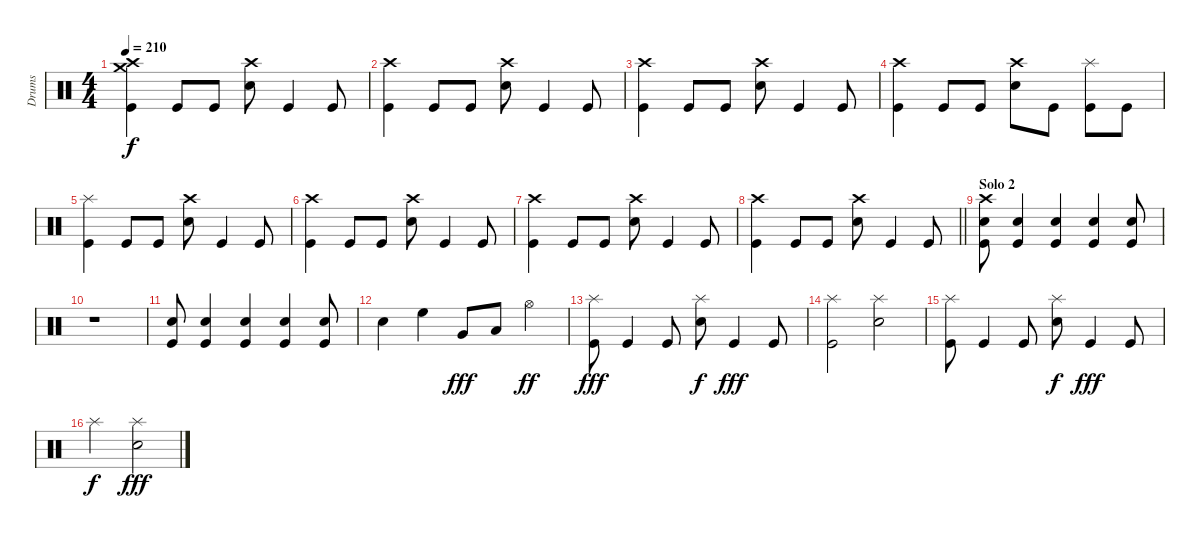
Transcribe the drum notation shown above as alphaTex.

\track ("Drums" "Drums") {instrument percussion}
\staff {score}
\articulation defaults
\ts (4 4)
\tempo 210
\clef neutral
\ks c
("Crash high (hit)" "Crash medium (hit)" "Kick (hit)").4{dy f} "Kick (hit)".8 "Kick (hit)".8 ("Crash high (hit)" "Snare (hit) 2").8 "Kick (hit)".4 "Kick (hit)".8 |
("Crash high (hit)" "Kick (hit)").4 "Kick (hit)".8 "Kick (hit)".8 ("Crash high (hit)" "Snare (hit) 2").8 "Kick (hit)".4 "Kick (hit)".8 |
("Crash high (hit)" "Kick (hit)").4 "Kick (hit)".8 "Kick (hit)".8 ("Crash high (hit)" "Snare (hit) 2").8 "Kick (hit)".4 "Kick (hit)".8 |
("Crash high (hit)" "Kick (hit)").4 "Kick (hit)".8 "Kick (hit)".8 ("Crash high (hit)" "Snare (hit) 2").8 "Kick (hit)".8 ("Splash (hit)" "Kick (hit)").8 "Kick (hit)".8 |
("Splash (hit)" "Kick (hit)").4 "Kick (hit)".8 "Kick (hit)".8 ("Crash high (hit)" "Snare (hit) 2").8 "Kick (hit)".4 "Kick (hit)".8 |
("Crash high (hit)" "Kick (hit)").4 "Kick (hit)".8 "Kick (hit)".8 ("Crash high (hit)" "Snare (hit) 2").8 "Kick (hit)".4 "Kick (hit)".8 |
("Crash high (hit)" "Kick (hit)").4 "Kick (hit)".8 "Kick (hit)".8 ("Crash high (hit)" "Snare (hit) 2").8 "Kick (hit)".4 "Kick (hit)".8 |
\barLineRight lightlight
("Crash high (hit)" "Kick (hit)").4 "Kick (hit)".8 "Kick (hit)".8 ("Crash high (hit)" "Snare (hit) 2").8 "Kick (hit)".4 "Kick (hit)".8 |
\section ("" "Solo 2")
("Crash high (hit)" "Snare (hit) 2" "Kick (hit)").8 ("Snare (hit) 2" "Kick (hit)").4 ("Snare (hit) 2" "Kick (hit)").4 ("Snare (hit) 2" "Kick (hit)").4 ("Snare (hit) 2" "Kick (hit)").8 |
r.1 |
("Snare (hit) 2" "Kick (hit)").8 ("Snare (hit) 2" "Kick (hit)").4 ("Snare (hit) 2" "Kick (hit)").4 ("Snare (hit) 2" "Kick (hit)").4 ("Snare (hit) 2" "Kick (hit)").8 |
"Snare (hit) 2".4 "High Floor Tom (hit)".4 "Very Low Tom (hit)".8{dy fff} "Low Floor Tom (hit)".8 "Hi-Hat (open)".4{dy ff} |
("Splash (hit)" "Kick (hit)").8{dy fff} "Kick (hit)".4 "Kick (hit)".8 ("Splash (hit)" "Snare (hit) 2").8{dy f} "Kick (hit)".4{dy fff} "Kick (hit)".8 |
("Splash (hit)" "Kick (hit)").2 ("Splash (hit)" "Snare (hit) 2").2 |
("Splash (hit)" "Kick (hit)").8 "Kick (hit)".4 "Kick (hit)".8 ("Splash (hit)" "Snare (hit) 2").8{dy f} "Kick (hit)".4{dy fff} "Kick (hit)".8 |
"Splash (hit)".2{dy f} ("Splash (hit)" "Snare (hit) 2").2{dy fff}
